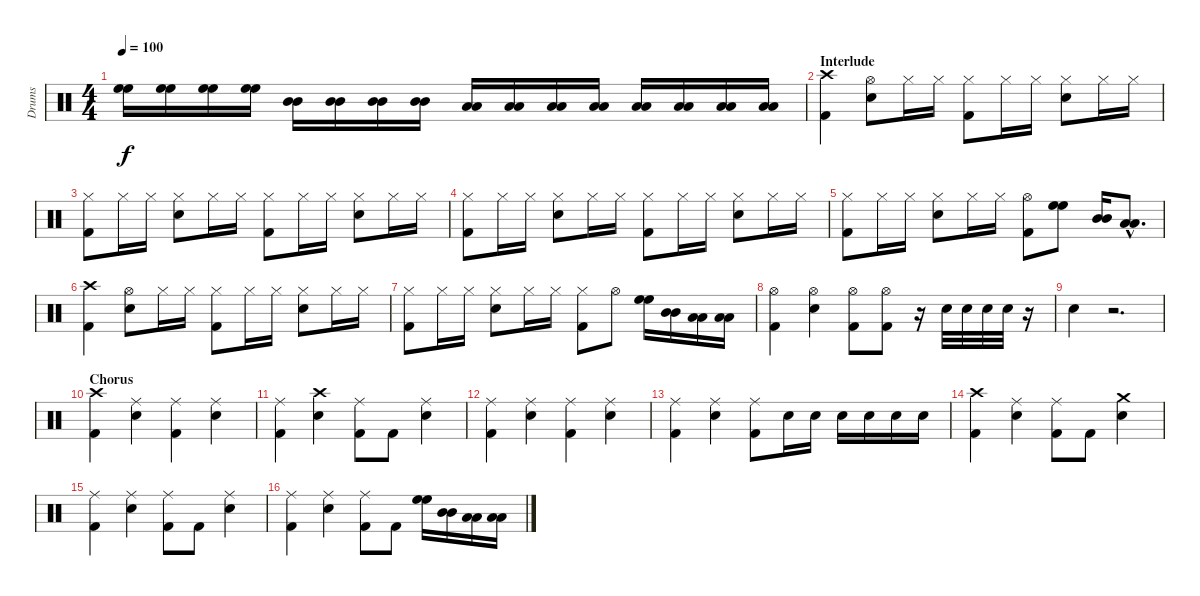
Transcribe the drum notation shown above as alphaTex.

\track ("Drums" "Drums") {instrument percussion}
\staff {score}
\articulation defaults
\ts (4 4)
\tempo 100
\clef neutral
\ks c
("High Floor Tom (hit)" "High Floor Tom (hit)").16{dy f} ("High Floor Tom (hit)" "High Floor Tom (hit)").16 ("High Floor Tom (hit)" "High Floor Tom (hit)").16 ("High Floor Tom (hit)" "High Floor Tom (hit)").16 ("Mid Tom (hit)" "Mid Tom (hit)").16 ("Mid Tom (hit)" "Mid Tom (hit)").16 ("Mid Tom (hit)" "Mid Tom (hit)").16 ("Mid Tom (hit)" "Mid Tom (hit)").16 ("Low Tom (hit)" "Low Tom (hit)").16 ("Low Tom (hit)" "Low Tom (hit)").16 ("Low Tom (hit)" "Low Tom (hit)").16 ("Low Tom (hit)" "Low Tom (hit)").16 ("Low Floor Tom (hit)" "Low Floor Tom (hit)").16 ("Low Floor Tom (hit)" "Low Floor Tom (hit)").16 ("Low Floor Tom (hit)" "Low Floor Tom (hit)").16 ("Low Floor Tom (hit)" "Low Floor Tom (hit)").16 |
\section ("" "Interlude")
("Crash high (hit)" "Kick (hit) 2").4 ("Hi-Hat (open)" "Snare (hit) 2").8 "Hi-Hat (closed)".16 "Hi-Hat (closed)".16 ("Hi-Hat (closed)" "Kick (hit) 2").8 "Hi-Hat (closed)".16 "Hi-Hat (closed)".16 ("Hi-Hat (closed)" "Snare (hit) 2").8 "Hi-Hat (closed)".16 "Hi-Hat (closed)".16 |
("Hi-Hat (closed)" "Kick (hit) 2").8 "Hi-Hat (closed)".16 "Hi-Hat (closed)".16 ("Hi-Hat (closed)" "Snare (hit) 2").8 "Hi-Hat (closed)".16 "Hi-Hat (closed)".16 ("Hi-Hat (closed)" "Kick (hit) 2").8 "Hi-Hat (closed)".16 "Hi-Hat (closed)".16 ("Hi-Hat (closed)" "Snare (hit) 2").8 "Hi-Hat (closed)".16 "Hi-Hat (closed)".16 |
("Hi-Hat (closed)" "Kick (hit) 2").8 "Hi-Hat (closed)".16 "Hi-Hat (closed)".16 ("Hi-Hat (closed)" "Snare (hit) 2").8 "Hi-Hat (closed)".16 "Hi-Hat (closed)".16 ("Hi-Hat (closed)" "Kick (hit) 2").8 "Hi-Hat (closed)".16 "Hi-Hat (closed)".16 ("Hi-Hat (closed)" "Snare (hit) 2").8 "Hi-Hat (closed)".16 "Hi-Hat (closed)".16 |
("Hi-Hat (closed)" "Kick (hit) 2").8 "Hi-Hat (closed)".16 "Hi-Hat (closed)".16 ("Hi-Hat (closed)" "Snare (hit) 2").8 "Hi-Hat (closed)".16 "Hi-Hat (closed)".16 ("Hi-Hat (open)" "Kick (hit) 2").8 ("High Floor Tom (hit)" "High Floor Tom (hit)").8 ("Mid Tom (hit)" "Mid Tom (hit)").16 ("Low Tom (hit)"{hac} "Low Tom (hit)"{hac}).8{d} |
("Crash high (hit)" "Kick (hit) 2").4 ("Hi-Hat (open)" "Snare (hit) 2").8 "Hi-Hat (closed)".16 "Hi-Hat (closed)".16 ("Hi-Hat (closed)" "Kick (hit) 2").8 "Hi-Hat (closed)".16 "Hi-Hat (closed)".16 ("Hi-Hat (closed)" "Snare (hit) 2").8 "Hi-Hat (closed)".16 "Hi-Hat (closed)".16 |
("Hi-Hat (closed)" "Kick (hit) 2").8 "Hi-Hat (closed)".16 "Hi-Hat (closed)".16 ("Hi-Hat (closed)" "Snare (hit) 2").8 "Hi-Hat (closed)".16 "Hi-Hat (closed)".16 ("Hi-Hat (closed)" "Kick (hit) 2").8 "Hi-Hat (open)".8 ("High Floor Tom (hit)" "High Floor Tom (hit)").16 ("Mid Tom (hit)" "Mid Tom (hit)").16 ("Low Tom (hit)" "Low Tom (hit)").16 ("Low Floor Tom (hit)" "Low Floor Tom (hit)").16 |
("Hi-Hat (open)" "Kick (hit) 2").4 ("Hi-Hat (open)" "Snare (hit) 2").4 ("Hi-Hat (open)" "Kick (hit) 2").8 ("Hi-Hat (open)" "Kick (hit) 2").8 r.16 "Snare (hit) 2".32 "Snare (hit) 2".32 "Snare (hit) 2".32 "Snare (hit) 2".32 r.16 |
"Snare (hit) 2".4 r.2{d} |
\section ("" "Chorus")
("Crash high (hit)" "Kick (hit) 2").4 ("Ride (middle)" "Snare (hit) 2").4 ("Ride (middle)" "Kick (hit) 2").4 ("Ride (middle)" "Snare (hit) 2").4 |
("Ride (middle)" "Kick (hit) 2").4 ("Crash high (hit)" "Snare (hit) 2").4 ("Ride (middle)" "Kick (hit) 2").8 "Kick (hit) 2".8 ("Ride (middle)" "Snare (hit) 2").4 |
("Ride (middle)" "Kick (hit) 2").4 ("Ride (middle)" "Snare (hit) 2").4 ("Ride (middle)" "Kick (hit) 2").4 ("Ride (middle)" "Snare (hit) 2").4 |
("Ride (middle)" "Kick (hit) 2").4 ("Ride (middle)" "Snare (hit) 2").4 ("Ride (middle)" "Kick (hit) 2").8 "Snare (hit) 2".16 "Snare (hit) 2".16 "Snare (hit) 2".16 "Snare (hit) 2".16 "Snare (hit) 2".16 "Snare (hit) 2".16 |
("Crash high (hit)" "Kick (hit) 2").4 ("Ride (middle)" "Snare (hit) 2").4 ("Ride (middle)" "Kick (hit) 2").8 "Kick (hit) 2".8 ("Crash medium (hit)" "Snare (hit) 2").4 |
("Ride (middle)" "Kick (hit) 2").4 ("Ride (middle)" "Snare (hit) 2").4 ("Ride (middle)" "Kick (hit) 2").8 "Kick (hit) 2".8 ("Ride (middle)" "Snare (hit) 2").4 |
("Ride (middle)" "Kick (hit) 2").4 ("Ride (middle)" "Snare (hit) 2").4 ("Ride (middle)" "Kick (hit) 2").8 "Kick (hit) 2".8 ("High Floor Tom (hit)" "High Floor Tom (hit)").16 ("Mid Tom (hit)" "Mid Tom (hit)").16 ("Low Tom (hit)" "Low Tom (hit)").16 ("Low Floor Tom (hit)" "Low Floor Tom (hit)").16
